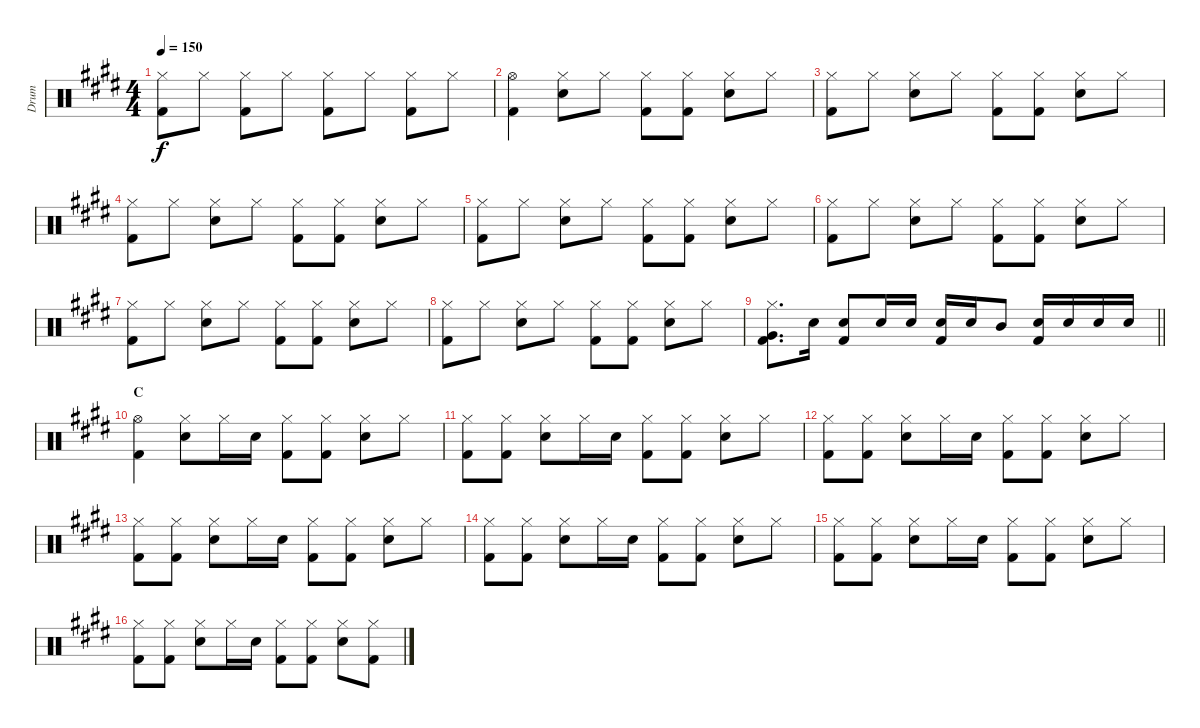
\track ("Drum" "Drum") {instrument percussion}
\staff {score}
\articulation defaults
\ts (4 4)
\tempo 150
\clef neutral
\ks c#minor
("Hi-Hat (closed)" "Kick (hit) 2").8{dy f} "Hi-Hat (closed)".8 ("Hi-Hat (closed)" "Kick (hit) 2").8 "Hi-Hat (closed)".8 ("Hi-Hat (closed)" "Kick (hit) 2").8 "Hi-Hat (closed)".8 ("Hi-Hat (closed)" "Kick (hit) 2").8 "Hi-Hat (closed)".8 |
("Hi-Hat (open)" "Kick (hit) 2").4 ("Hi-Hat (closed)" "Snare (hit) 2").8 "Hi-Hat (closed)".8 ("Hi-Hat (closed)" "Kick (hit) 2").8 ("Hi-Hat (closed)" "Kick (hit) 2").8 ("Hi-Hat (closed)" "Snare (hit) 2").8 "Hi-Hat (closed)".8 |
("Hi-Hat (closed)" "Kick (hit) 2").8 "Hi-Hat (closed)".8 ("Hi-Hat (closed)" "Snare (hit) 2").8 "Hi-Hat (closed)".8 ("Hi-Hat (closed)" "Kick (hit) 2").8 ("Hi-Hat (closed)" "Kick (hit) 2").8 ("Hi-Hat (closed)" "Snare (hit) 2").8 "Hi-Hat (closed)".8 |
("Hi-Hat (closed)" "Kick (hit) 2").8 "Hi-Hat (closed)".8 ("Hi-Hat (closed)" "Snare (hit) 2").8 "Hi-Hat (closed)".8 ("Hi-Hat (closed)" "Kick (hit) 2").8 ("Hi-Hat (closed)" "Kick (hit) 2").8 ("Hi-Hat (closed)" "Snare (hit) 2").8 "Hi-Hat (closed)".8 |
("Hi-Hat (closed)" "Kick (hit) 2").8 "Hi-Hat (closed)".8 ("Hi-Hat (closed)" "Snare (hit) 2").8 "Hi-Hat (closed)".8 ("Hi-Hat (closed)" "Kick (hit) 2").8 ("Hi-Hat (closed)" "Kick (hit) 2").8 ("Hi-Hat (closed)" "Snare (hit) 2").8 "Hi-Hat (closed)".8 |
("Hi-Hat (closed)" "Kick (hit) 2").8 "Hi-Hat (closed)".8 ("Hi-Hat (closed)" "Snare (hit) 2").8 "Hi-Hat (closed)".8 ("Hi-Hat (closed)" "Kick (hit) 2").8 ("Hi-Hat (closed)" "Kick (hit) 2").8 ("Hi-Hat (closed)" "Snare (hit) 2").8 "Hi-Hat (closed)".8 |
("Hi-Hat (closed)" "Kick (hit) 2").8 "Hi-Hat (closed)".8 ("Hi-Hat (closed)" "Snare (hit) 2").8 "Hi-Hat (closed)".8 ("Hi-Hat (closed)" "Kick (hit) 2").8 ("Hi-Hat (closed)" "Kick (hit) 2").8 ("Hi-Hat (closed)" "Snare (hit) 2").8 "Hi-Hat (closed)".8 |
("Hi-Hat (closed)" "Kick (hit) 2").8 "Hi-Hat (closed)".8 ("Hi-Hat (closed)" "Snare (hit) 2").8 "Hi-Hat (closed)".8 ("Hi-Hat (closed)" "Kick (hit) 2").8 ("Hi-Hat (closed)" "Kick (hit) 2").8 ("Hi-Hat (closed)" "Snare (hit) 2").8 "Hi-Hat (closed)".8 |
\barLineRight lightlight
("Hi-Hat (closed)" "Very Low Tom (hit)" "Kick (hit) 2").8{d} "Snare (hit) 2".16 ("Snare (hit) 2" "Kick (hit) 2").8 "Snare (hit) 2".16 "Snare (hit) 2".16 ("Snare (hit) 2" "Kick (hit) 2").16 "Snare (hit) 2".16 "Mid Tom (hit)".8 ("Snare (hit) 2" "Kick (hit) 2").16 "Snare (hit) 2".16 "Snare (hit) 2".16 "Snare (hit) 2".16 |
\section ("" "C")
("Hi-Hat (open)" "Kick (hit) 2").4 ("Hi-Hat (closed)" "Snare (hit) 2").8 "Hi-Hat (closed)".16 "Snare (hit) 2".16 ("Hi-Hat (closed)" "Kick (hit) 2").8 ("Hi-Hat (closed)" "Kick (hit) 2").8 ("Hi-Hat (closed)" "Snare (hit) 2").8 "Hi-Hat (closed)".8 |
("Hi-Hat (closed)" "Kick (hit) 2").8 ("Hi-Hat (closed)" "Kick (hit) 2").8 ("Hi-Hat (closed)" "Snare (hit) 2").8 "Hi-Hat (closed)".16 "Snare (hit) 2".16 ("Hi-Hat (closed)" "Kick (hit) 2").8 ("Hi-Hat (closed)" "Kick (hit) 2").8 ("Hi-Hat (closed)" "Snare (hit) 2").8 "Hi-Hat (closed)".8 |
("Hi-Hat (closed)" "Kick (hit) 2").8 ("Hi-Hat (closed)" "Kick (hit) 2").8 ("Hi-Hat (closed)" "Snare (hit) 2").8 "Hi-Hat (closed)".16 "Snare (hit) 2".16 ("Hi-Hat (closed)" "Kick (hit) 2").8 ("Hi-Hat (closed)" "Kick (hit) 2").8 ("Hi-Hat (closed)" "Snare (hit) 2").8 "Hi-Hat (closed)".8 |
("Hi-Hat (closed)" "Kick (hit) 2").8 ("Hi-Hat (closed)" "Kick (hit) 2").8 ("Hi-Hat (closed)" "Snare (hit) 2").8 "Hi-Hat (closed)".16 "Snare (hit) 2".16 ("Hi-Hat (closed)" "Kick (hit) 2").8 ("Hi-Hat (closed)" "Kick (hit) 2").8 ("Hi-Hat (closed)" "Snare (hit) 2").8 "Hi-Hat (closed)".8 |
("Hi-Hat (closed)" "Kick (hit) 2").8 ("Hi-Hat (closed)" "Kick (hit) 2").8 ("Hi-Hat (closed)" "Snare (hit) 2").8 "Hi-Hat (closed)".16 "Snare (hit) 2".16 ("Hi-Hat (closed)" "Kick (hit) 2").8 ("Hi-Hat (closed)" "Kick (hit) 2").8 ("Hi-Hat (closed)" "Snare (hit) 2").8 "Hi-Hat (closed)".8 |
("Hi-Hat (closed)" "Kick (hit) 2").8 ("Hi-Hat (closed)" "Kick (hit) 2").8 ("Hi-Hat (closed)" "Snare (hit) 2").8 "Hi-Hat (closed)".16 "Snare (hit) 2".16 ("Hi-Hat (closed)" "Kick (hit) 2").8 ("Hi-Hat (closed)" "Kick (hit) 2").8 ("Hi-Hat (closed)" "Snare (hit) 2").8 "Hi-Hat (closed)".8 |
("Hi-Hat (closed)" "Kick (hit) 2").8 ("Hi-Hat (closed)" "Kick (hit) 2").8 ("Hi-Hat (closed)" "Snare (hit) 2").8 "Hi-Hat (closed)".16 "Snare (hit) 2".16 ("Hi-Hat (closed)" "Kick (hit) 2").8 ("Hi-Hat (closed)" "Kick (hit) 2").8 ("Hi-Hat (closed)" "Snare (hit) 2").8 ("Hi-Hat (closed)" "Kick (hit) 2").8
